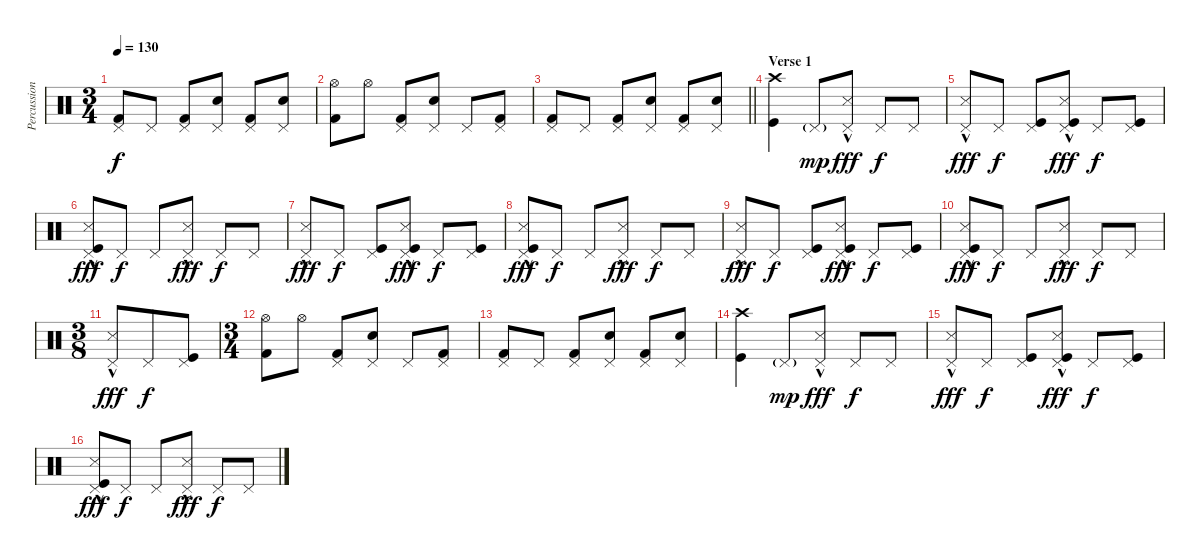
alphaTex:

\track ("Percussion" "Percussion") {instrument percussion}
\staff {score}
\articulation defaults
\ts (3 4)
\tempo 130
\clef neutral
\ks c
("Pedal Hi-Hat (hit)" "Kick (hit) 2").8{dy f} "Pedal Hi-Hat (hit)".8 ("Pedal Hi-Hat (hit)" "Kick (hit) 2").8 ("Pedal Hi-Hat (hit)" "Electric Snare (hit)").8 ("Pedal Hi-Hat (hit)" "Kick (hit) 2").8 ("Pedal Hi-Hat (hit)" "Electric Snare (hit)").8 |
("Hi-Hat (open)" "Kick (hit) 2").8 "Hi-Hat (open)".8 ("Pedal Hi-Hat (hit)" "Kick (hit) 2").8 ("Pedal Hi-Hat (hit)" "Electric Snare (hit)").8 "Pedal Hi-Hat (hit)".8 ("Pedal Hi-Hat (hit)" "Kick (hit) 2").8 |
\barLineRight lightlight
("Pedal Hi-Hat (hit)" "Kick (hit) 2").8 "Pedal Hi-Hat (hit)".8 ("Pedal Hi-Hat (hit)" "Kick (hit) 2").8 ("Pedal Hi-Hat (hit)" "Electric Snare (hit)").8 ("Pedal Hi-Hat (hit)" "Kick (hit) 2").8 ("Pedal Hi-Hat (hit)" "Electric Snare (hit)").8 |
\section ("" "Verse 1")
("Crash high (hit)" "Kick (hit)").4{volume 10} "Pedal Hi-Hat (hit)"{g}.8{dy mp} ("Pedal Hi-Hat (hit)" "Snare (side stick) 3"{hac}).8{dy fff} "Pedal Hi-Hat (hit)".8{dy f} "Pedal Hi-Hat (hit)".8 |
("Pedal Hi-Hat (hit)" "Snare (side stick) 3"{hac}).8{dy fff} "Pedal Hi-Hat (hit)".8{dy f} ("Pedal Hi-Hat (hit)" "Kick (hit)").8 ("Pedal Hi-Hat (hit)" "Snare (side stick) 3"{hac} "Kick (hit)").8{dy fff} "Pedal Hi-Hat (hit)".8{dy f} ("Pedal Hi-Hat (hit)" "Kick (hit)").8 |
("Pedal Hi-Hat (hit)" "Snare (side stick) 3"{hac} "Kick (hit)").8{dy fff} "Pedal Hi-Hat (hit)".8{dy f} "Pedal Hi-Hat (hit)".8 ("Pedal Hi-Hat (hit)" "Snare (side stick) 3"{hac}).8{dy fff} "Pedal Hi-Hat (hit)".8{dy f} "Pedal Hi-Hat (hit)".8 |
("Pedal Hi-Hat (hit)" "Snare (side stick) 3"{hac}).8{dy fff} "Pedal Hi-Hat (hit)".8{dy f} ("Pedal Hi-Hat (hit)" "Kick (hit)").8 ("Pedal Hi-Hat (hit)" "Snare (side stick) 3"{hac} "Kick (hit)").8{dy fff} "Pedal Hi-Hat (hit)".8{dy f} ("Pedal Hi-Hat (hit)" "Kick (hit)").8 |
("Pedal Hi-Hat (hit)" "Snare (side stick) 3"{hac} "Kick (hit)").8{dy fff} "Pedal Hi-Hat (hit)".8{dy f} "Pedal Hi-Hat (hit)".8 ("Pedal Hi-Hat (hit)" "Snare (side stick) 3"{hac}).8{dy fff} "Pedal Hi-Hat (hit)".8{dy f} "Pedal Hi-Hat (hit)".8 |
("Pedal Hi-Hat (hit)" "Snare (side stick) 3"{hac}).8{dy fff} "Pedal Hi-Hat (hit)".8{dy f} ("Pedal Hi-Hat (hit)" "Kick (hit)").8 ("Pedal Hi-Hat (hit)" "Snare (side stick) 3"{hac} "Kick (hit)").8{dy fff} "Pedal Hi-Hat (hit)".8{dy f} ("Pedal Hi-Hat (hit)" "Kick (hit)").8 |
("Pedal Hi-Hat (hit)" "Snare (side stick) 3"{hac} "Kick (hit)").8{dy fff} "Pedal Hi-Hat (hit)".8{dy f} "Pedal Hi-Hat (hit)".8 ("Pedal Hi-Hat (hit)" "Snare (side stick) 3"{hac}).8{dy fff} "Pedal Hi-Hat (hit)".8{dy f} "Pedal Hi-Hat (hit)".8 |
\ts (3 8)
("Pedal Hi-Hat (hit)" "Snare (side stick) 3"{hac}).8{dy fff} "Pedal Hi-Hat (hit)".8{dy f} ("Pedal Hi-Hat (hit)" "Kick (hit)").8 |
\ts (3 4)
("Hi-Hat (open)" "Kick (hit) 2").8{volume 13} "Hi-Hat (open)".8 ("Pedal Hi-Hat (hit)" "Kick (hit) 2").8 ("Pedal Hi-Hat (hit)" "Electric Snare (hit)").8 "Pedal Hi-Hat (hit)".8 ("Pedal Hi-Hat (hit)" "Kick (hit) 2").8 |
("Pedal Hi-Hat (hit)" "Kick (hit) 2").8 "Pedal Hi-Hat (hit)".8 ("Pedal Hi-Hat (hit)" "Kick (hit) 2").8 ("Pedal Hi-Hat (hit)" "Electric Snare (hit)").8 ("Pedal Hi-Hat (hit)" "Kick (hit) 2").8 ("Pedal Hi-Hat (hit)" "Electric Snare (hit)").8 |
("Crash high (hit)" "Kick (hit)").4{volume 10} "Pedal Hi-Hat (hit)"{g}.8{dy mp} ("Pedal Hi-Hat (hit)" "Snare (side stick) 3"{hac}).8{dy fff} "Pedal Hi-Hat (hit)".8{dy f} "Pedal Hi-Hat (hit)".8 |
("Pedal Hi-Hat (hit)" "Snare (side stick) 3"{hac}).8{dy fff} "Pedal Hi-Hat (hit)".8{dy f} ("Pedal Hi-Hat (hit)" "Kick (hit)").8 ("Pedal Hi-Hat (hit)" "Snare (side stick) 3"{hac} "Kick (hit)").8{dy fff} "Pedal Hi-Hat (hit)".8{dy f} ("Pedal Hi-Hat (hit)" "Kick (hit)").8 |
("Pedal Hi-Hat (hit)" "Snare (side stick) 3"{hac} "Kick (hit)").8{dy fff} "Pedal Hi-Hat (hit)".8{dy f} "Pedal Hi-Hat (hit)".8 ("Pedal Hi-Hat (hit)" "Snare (side stick) 3"{hac}).8{dy fff} "Pedal Hi-Hat (hit)".8{dy f} "Pedal Hi-Hat (hit)".8
